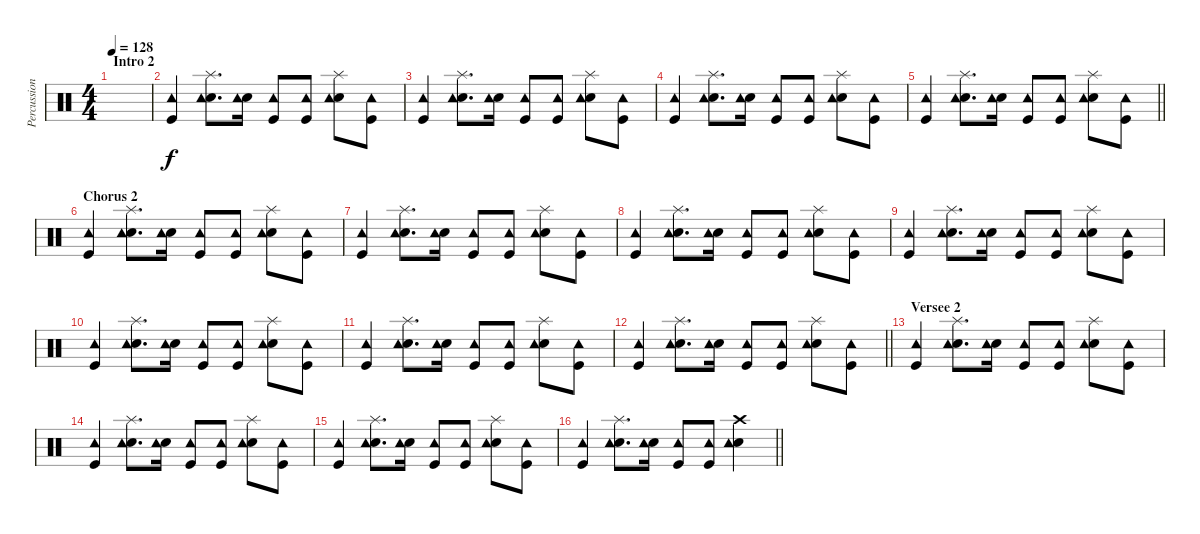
\track ("Percussions" "Percussion") {instrument percussion}
\staff {score}
\articulation defaults
\ts (4 4)
\section ("" "Intro 2")
\tempo 128
\clef neutral
\ks c
|
("Kick (hit)" "Tambourine (hit)").4 ("Snare (hit) 2" "Tambourine (hit)" "Splash (hit)").8{d} ("Snare (hit) 2" "Tambourine (hit)").16 ("Kick (hit)" "Tambourine (hit)").8 ("Kick (hit)" "Tambourine (hit)").8 ("Snare (hit) 2" "Tambourine (hit)" "Splash (hit)").8 ("Kick (hit)" "Tambourine (hit)").8 |
("Kick (hit)" "Tambourine (hit)").4 ("Snare (hit) 2" "Tambourine (hit)" "Splash (hit)").8{d} ("Snare (hit) 2" "Tambourine (hit)").16 ("Kick (hit)" "Tambourine (hit)").8 ("Kick (hit)" "Tambourine (hit)").8 ("Snare (hit) 2" "Tambourine (hit)" "Splash (hit)").8 ("Kick (hit)" "Tambourine (hit)").8 |
("Kick (hit)" "Tambourine (hit)").4 ("Snare (hit) 2" "Tambourine (hit)" "Splash (hit)").8{d} ("Snare (hit) 2" "Tambourine (hit)").16 ("Kick (hit)" "Tambourine (hit)").8 ("Kick (hit)" "Tambourine (hit)").8 ("Snare (hit) 2" "Tambourine (hit)" "Splash (hit)").8 ("Kick (hit)" "Tambourine (hit)").8 |
\barLineRight lightlight
("Kick (hit)" "Tambourine (hit)").4 ("Snare (hit) 2" "Tambourine (hit)" "Splash (hit)").8{d} ("Snare (hit) 2" "Tambourine (hit)").16 ("Kick (hit)" "Tambourine (hit)").8 ("Kick (hit)" "Tambourine (hit)").8 ("Snare (hit) 2" "Tambourine (hit)" "Splash (hit)").8 ("Kick (hit)" "Tambourine (hit)").8 |
\section ("" "Chorus 2")
("Kick (hit)" "Tambourine (hit)").4 ("Snare (hit) 2" "Tambourine (hit)" "Splash (hit)").8{d} ("Snare (hit) 2" "Tambourine (hit)").16 ("Kick (hit)" "Tambourine (hit)").8 ("Kick (hit)" "Tambourine (hit)").8 ("Snare (hit) 2" "Tambourine (hit)" "Splash (hit)").8 ("Kick (hit)" "Tambourine (hit)").8 |
("Kick (hit)" "Tambourine (hit)").4 ("Snare (hit) 2" "Tambourine (hit)" "Splash (hit)").8{d} ("Snare (hit) 2" "Tambourine (hit)").16 ("Kick (hit)" "Tambourine (hit)").8 ("Kick (hit)" "Tambourine (hit)").8 ("Snare (hit) 2" "Tambourine (hit)" "Splash (hit)").8 ("Kick (hit)" "Tambourine (hit)").8 |
("Kick (hit)" "Tambourine (hit)").4 ("Snare (hit) 2" "Tambourine (hit)" "Splash (hit)").8{d} ("Snare (hit) 2" "Tambourine (hit)").16 ("Kick (hit)" "Tambourine (hit)").8 ("Kick (hit)" "Tambourine (hit)").8 ("Snare (hit) 2" "Tambourine (hit)" "Splash (hit)").8 ("Kick (hit)" "Tambourine (hit)").8 |
("Kick (hit)" "Tambourine (hit)").4 ("Snare (hit) 2" "Tambourine (hit)" "Splash (hit)").8{d} ("Snare (hit) 2" "Tambourine (hit)").16 ("Kick (hit)" "Tambourine (hit)").8 ("Kick (hit)" "Tambourine (hit)").8 ("Snare (hit) 2" "Tambourine (hit)" "Splash (hit)").8 ("Kick (hit)" "Tambourine (hit)").8 |
("Kick (hit)" "Tambourine (hit)").4 ("Snare (hit) 2" "Tambourine (hit)" "Splash (hit)").8{d} ("Snare (hit) 2" "Tambourine (hit)").16 ("Kick (hit)" "Tambourine (hit)").8 ("Kick (hit)" "Tambourine (hit)").8 ("Snare (hit) 2" "Tambourine (hit)" "Splash (hit)").8 ("Kick (hit)" "Tambourine (hit)").8 |
("Kick (hit)" "Tambourine (hit)").4 ("Snare (hit) 2" "Tambourine (hit)" "Splash (hit)").8{d} ("Snare (hit) 2" "Tambourine (hit)").16 ("Kick (hit)" "Tambourine (hit)").8 ("Kick (hit)" "Tambourine (hit)").8 ("Snare (hit) 2" "Tambourine (hit)" "Splash (hit)").8 ("Kick (hit)" "Tambourine (hit)").8 |
\barLineRight lightlight
("Kick (hit)" "Tambourine (hit)").4 ("Snare (hit) 2" "Tambourine (hit)" "Splash (hit)").8{d} ("Snare (hit) 2" "Tambourine (hit)").16 ("Kick (hit)" "Tambourine (hit)").8 ("Kick (hit)" "Tambourine (hit)").8 ("Snare (hit) 2" "Tambourine (hit)" "Splash (hit)").8 ("Kick (hit)" "Tambourine (hit)").8 |
\section ("" "Versee 2")
("Kick (hit)" "Tambourine (hit)").4 ("Snare (hit) 2" "Tambourine (hit)" "Splash (hit)").8{d} ("Snare (hit) 2" "Tambourine (hit)").16 ("Kick (hit)" "Tambourine (hit)").8 ("Kick (hit)" "Tambourine (hit)").8 ("Snare (hit) 2" "Tambourine (hit)" "Splash (hit)").8 ("Kick (hit)" "Tambourine (hit)").8 |
("Kick (hit)" "Tambourine (hit)").4 ("Snare (hit) 2" "Tambourine (hit)" "Splash (hit)").8{d} ("Snare (hit) 2" "Tambourine (hit)").16 ("Kick (hit)" "Tambourine (hit)").8 ("Kick (hit)" "Tambourine (hit)").8 ("Snare (hit) 2" "Tambourine (hit)" "Splash (hit)").8 ("Kick (hit)" "Tambourine (hit)").8 |
("Kick (hit)" "Tambourine (hit)").4 ("Snare (hit) 2" "Tambourine (hit)" "Splash (hit)").8{d} ("Snare (hit) 2" "Tambourine (hit)").16 ("Kick (hit)" "Tambourine (hit)").8 ("Kick (hit)" "Tambourine (hit)").8 ("Snare (hit) 2" "Tambourine (hit)" "Splash (hit)").8 ("Kick (hit)" "Tambourine (hit)").8 |
\barLineRight lightlight
("Kick (hit)" "Tambourine (hit)").4 ("Snare (hit) 2" "Tambourine (hit)" "Splash (hit)").8{d} ("Snare (hit) 2" "Tambourine (hit)").16 ("Kick (hit)" "Tambourine (hit)").8 ("Kick (hit)" "Tambourine (hit)").8 ("Snare (hit) 2" "Tambourine (hit)" "Crash high (hit)").4
